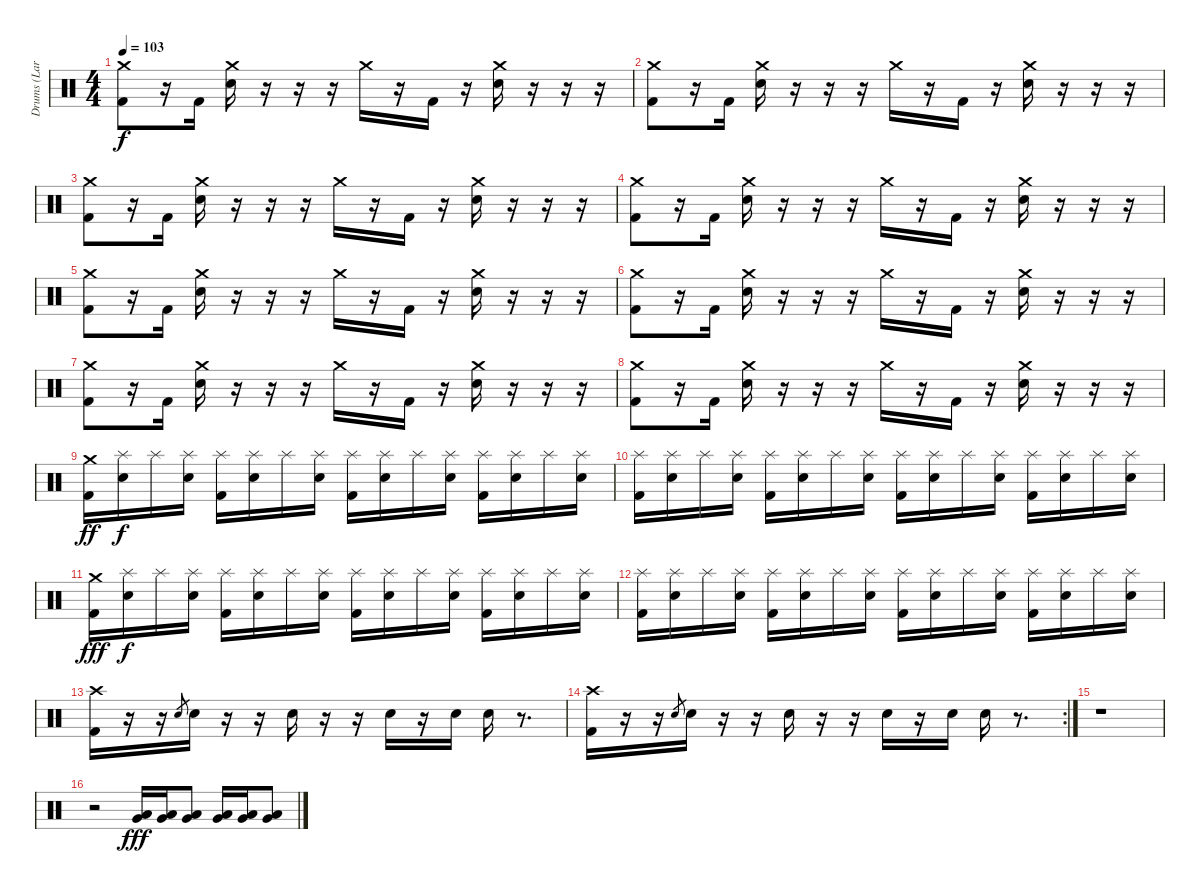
\track ("Drums (Lars)" "Drums (Lar") {instrument percussion}
\staff {score}
\articulation defaults
\ts (4 4)
\tempo 103
\clef neutral
\ks c
("Crash medium (hit)" "Kick (hit) 2").8{dy f} r.16 "Kick (hit) 2".16 ("Crash medium (hit)" "Snare (hit) 2").16 r.16 r.16 r.16 "Crash medium (hit)".16 r.16 "Kick (hit) 2".16 r.16 ("Crash medium (hit)" "Snare (hit) 2").16 r.16 r.16 r.16 |
("Crash medium (hit)" "Kick (hit) 2").8 r.16 "Kick (hit) 2".16 ("Crash medium (hit)" "Snare (hit) 2").16 r.16 r.16 r.16 "Crash medium (hit)".16 r.16 "Kick (hit) 2".16 r.16 ("Crash medium (hit)" "Snare (hit) 2").16 r.16 r.16 r.16 |
("Crash medium (hit)" "Kick (hit) 2").8 r.16 "Kick (hit) 2".16 ("Crash medium (hit)" "Snare (hit) 2").16 r.16 r.16 r.16 "Crash medium (hit)".16 r.16 "Kick (hit) 2".16 r.16 ("Crash medium (hit)" "Snare (hit) 2").16 r.16 r.16 r.16 |
("Crash medium (hit)" "Kick (hit) 2").8 r.16 "Kick (hit) 2".16 ("Crash medium (hit)" "Snare (hit) 2").16 r.16 r.16 r.16 "Crash medium (hit)".16 r.16 "Kick (hit) 2".16 r.16 ("Crash medium (hit)" "Snare (hit) 2").16 r.16 r.16 r.16 |
("Crash medium (hit)" "Kick (hit) 2").8 r.16 "Kick (hit) 2".16 ("Crash medium (hit)" "Snare (hit) 2").16 r.16 r.16 r.16 "Crash medium (hit)".16 r.16 "Kick (hit) 2".16 r.16 ("Crash medium (hit)" "Snare (hit) 2").16 r.16 r.16 r.16 |
("Crash medium (hit)" "Kick (hit) 2").8 r.16 "Kick (hit) 2".16 ("Crash medium (hit)" "Snare (hit) 2").16 r.16 r.16 r.16 "Crash medium (hit)".16 r.16 "Kick (hit) 2".16 r.16 ("Crash medium (hit)" "Snare (hit) 2").16 r.16 r.16 r.16 |
("Crash medium (hit)" "Kick (hit) 2").8 r.16 "Kick (hit) 2".16 ("Crash medium (hit)" "Snare (hit) 2").16 r.16 r.16 r.16 "Crash medium (hit)".16 r.16 "Kick (hit) 2".16 r.16 ("Crash medium (hit)" "Snare (hit) 2").16 r.16 r.16 r.16 |
("Crash medium (hit)" "Kick (hit) 2").8 r.16 "Kick (hit) 2".16 ("Crash medium (hit)" "Snare (hit) 2").16 r.16 r.16 r.16 "Crash medium (hit)".16 r.16 "Kick (hit) 2".16 r.16 ("Crash medium (hit)" "Snare (hit) 2").16 r.16 r.16 r.16 |
("Crash medium (hit)" "Kick (hit) 2").16{dy ff} ("Splash (hit)" "Snare (hit) 2").16{dy f} "Splash (hit)".16 ("Splash (hit)" "Snare (hit) 2").16 ("Splash (hit)" "Kick (hit) 2").16 ("Splash (hit)" "Snare (hit) 2").16 "Splash (hit)".16 ("Splash (hit)" "Snare (hit) 2").16 ("Splash (hit)" "Kick (hit) 2").16 ("Splash (hit)" "Snare (hit) 2").16 "Splash (hit)".16 ("Splash (hit)" "Snare (hit) 2").16 ("Splash (hit)" "Kick (hit) 2").16 ("Splash (hit)" "Snare (hit) 2").16 "Splash (hit)".16 ("Splash (hit)" "Snare (hit) 2").16 |
("Splash (hit)" "Kick (hit) 2").16 ("Splash (hit)" "Snare (hit) 2").16 "Splash (hit)".16 ("Splash (hit)" "Snare (hit) 2").16 ("Splash (hit)" "Kick (hit) 2").16 ("Splash (hit)" "Snare (hit) 2").16 "Splash (hit)".16 ("Splash (hit)" "Snare (hit) 2").16 ("Splash (hit)" "Kick (hit) 2").16 ("Splash (hit)" "Snare (hit) 2").16 "Splash (hit)".16 ("Splash (hit)" "Snare (hit) 2").16 ("Splash (hit)" "Kick (hit) 2").16 ("Splash (hit)" "Snare (hit) 2").16 "Splash (hit)".16 ("Splash (hit)" "Snare (hit) 2").16 |
("Crash medium (hit)" "Kick (hit) 2").16{dy fff} ("Splash (hit)" "Snare (hit) 2").16{dy f} "Splash (hit)".16 ("Splash (hit)" "Snare (hit) 2").16 ("Splash (hit)" "Kick (hit) 2").16 ("Splash (hit)" "Snare (hit) 2").16 "Splash (hit)".16 ("Splash (hit)" "Snare (hit) 2").16 ("Splash (hit)" "Kick (hit) 2").16 ("Splash (hit)" "Snare (hit) 2").16 "Splash (hit)".16 ("Splash (hit)" "Snare (hit) 2").16 ("Splash (hit)" "Kick (hit) 2").16 ("Splash (hit)" "Snare (hit) 2").16 "Splash (hit)".16 ("Splash (hit)" "Snare (hit) 2").16 |
("Splash (hit)" "Kick (hit) 2").16 ("Splash (hit)" "Snare (hit) 2").16 "Splash (hit)".16 ("Splash (hit)" "Snare (hit) 2").16 ("Splash (hit)" "Kick (hit) 2").16 ("Splash (hit)" "Snare (hit) 2").16 "Splash (hit)".16 ("Splash (hit)" "Snare (hit) 2").16 ("Splash (hit)" "Kick (hit) 2").16 ("Splash (hit)" "Snare (hit) 2").16 "Splash (hit)".16 ("Splash (hit)" "Snare (hit) 2").16 ("Splash (hit)" "Kick (hit) 2").16 ("Splash (hit)" "Snare (hit) 2").16 "Splash (hit)".16 ("Splash (hit)" "Snare (hit) 2").16 |
("Crash high (hit)" "Kick (hit) 2").16 r.16 r.16 "Snare (hit) 2".8{gr} "Snare (hit) 2".16 r.16 r.16 "Snare (hit) 2".16 r.16 r.16 "Snare (hit) 2".16 r.16 "Snare (hit) 2".16 "Snare (hit) 2".16 r.8{d} |
\rc 2
("Crash high (hit)" "Kick (hit) 2").16 r.16 r.16 "Snare (hit) 2".8{gr} "Snare (hit) 2".16 r.16 r.16 "Snare (hit) 2".16 r.16 r.16 "Snare (hit) 2".16 r.16 "Snare (hit) 2".16 "Snare (hit) 2".16 r.8{d} |
r.1 |
r.2 ("Very Low Tom (hit)" "Low Tom (hit)").16{dy fff} ("Very Low Tom (hit)" "Low Tom (hit)").16 ("Very Low Tom (hit)" "Low Tom (hit)").8 ("Very Low Tom (hit)" "Low Tom (hit)").16 ("Very Low Tom (hit)" "Low Tom (hit)").16 ("Very Low Tom (hit)" "Low Tom (hit)").8
